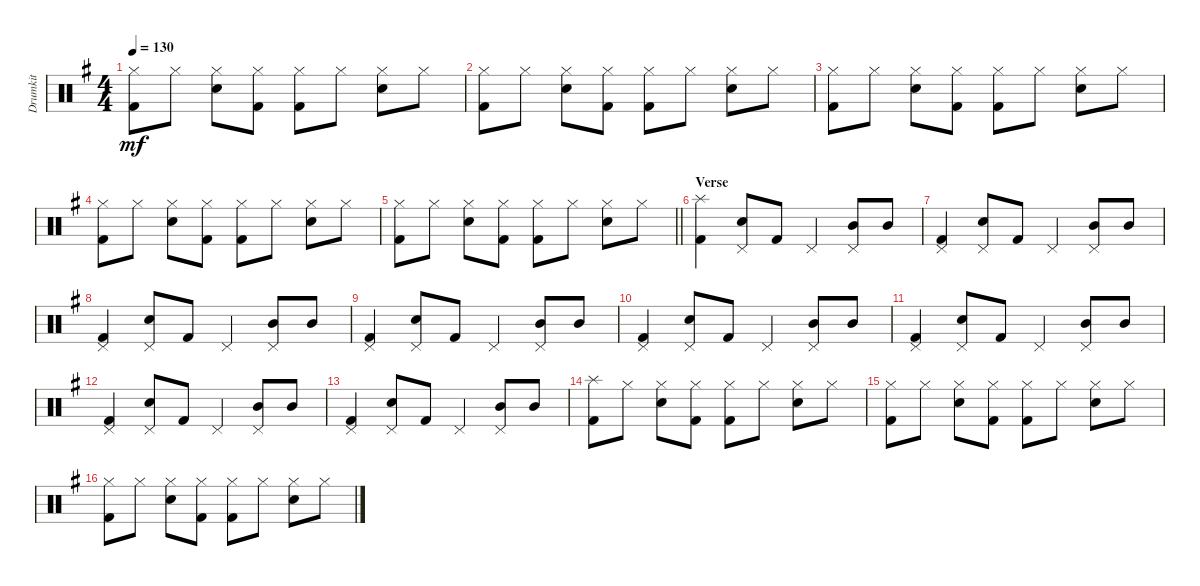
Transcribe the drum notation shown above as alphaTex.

\track ("Drumkit" "Drumkit") {instrument percussion}
\staff {score}
\articulation defaults
\ts (4 4)
\tempo 130
\clef neutral
\ks g
("Hi-Hat (closed)" "Kick (hit) 2").8{dy mf} "Hi-Hat (closed)".8 ("Hi-Hat (closed)" "Snare (hit) 2").8 ("Hi-Hat (closed)" "Kick (hit) 2").8 ("Hi-Hat (closed)" "Kick (hit) 2").8 "Hi-Hat (closed)".8 ("Hi-Hat (closed)" "Snare (hit) 2").8 "Hi-Hat (closed)".8 |
("Hi-Hat (closed)" "Kick (hit) 2").8 "Hi-Hat (closed)".8 ("Hi-Hat (closed)" "Snare (hit) 2").8 ("Hi-Hat (closed)" "Kick (hit) 2").8 ("Hi-Hat (closed)" "Kick (hit) 2").8 "Hi-Hat (closed)".8 ("Hi-Hat (closed)" "Snare (hit) 2").8 "Hi-Hat (closed)".8 |
("Hi-Hat (closed)" "Kick (hit) 2").8 "Hi-Hat (closed)".8 ("Hi-Hat (closed)" "Snare (hit) 2").8 ("Hi-Hat (closed)" "Kick (hit) 2").8 ("Hi-Hat (closed)" "Kick (hit) 2").8 "Hi-Hat (closed)".8 ("Hi-Hat (closed)" "Snare (hit) 2").8 "Hi-Hat (closed)".8 |
("Hi-Hat (closed)" "Kick (hit) 2").8 "Hi-Hat (closed)".8 ("Hi-Hat (closed)" "Snare (hit) 2").8 ("Hi-Hat (closed)" "Kick (hit) 2").8 ("Hi-Hat (closed)" "Kick (hit) 2").8 "Hi-Hat (closed)".8 ("Hi-Hat (closed)" "Snare (hit) 2").8 "Hi-Hat (closed)".8 |
\barLineRight lightlight
("Hi-Hat (closed)" "Kick (hit) 2").8 "Hi-Hat (closed)".8 ("Hi-Hat (closed)" "Snare (hit) 2").8 ("Hi-Hat (closed)" "Kick (hit) 2").8 ("Hi-Hat (closed)" "Kick (hit) 2").8 "Hi-Hat (closed)".8 ("Hi-Hat (closed)" "Snare (hit) 2").8 "Hi-Hat (closed)".8 |
\section ("" "Verse")
("Kick (hit) 2" "Splash (hit)").4 ("Snare (hit) 2" "Pedal Hi-Hat (hit)").8 "Kick (hit) 2".8 "Pedal Hi-Hat (hit)".4 ("Pedal Hi-Hat (hit)" "Mid Tom (hit)").8 "Mid Tom (hit)".8 |
("Pedal Hi-Hat (hit)" "Kick (hit) 2").4 ("Pedal Hi-Hat (hit)" "Snare (hit) 2").8 "Kick (hit) 2".8 "Pedal Hi-Hat (hit)".4 ("Pedal Hi-Hat (hit)" "Mid Tom (hit)").8 "Mid Tom (hit)".8 |
("Pedal Hi-Hat (hit)" "Kick (hit) 2").4 ("Pedal Hi-Hat (hit)" "Snare (hit) 2").8 "Kick (hit) 2".8 "Pedal Hi-Hat (hit)".4 ("Pedal Hi-Hat (hit)" "Mid Tom (hit)").8 "Mid Tom (hit)".8 |
("Pedal Hi-Hat (hit)" "Kick (hit) 2").4 ("Pedal Hi-Hat (hit)" "Snare (hit) 2").8 "Kick (hit) 2".8 "Pedal Hi-Hat (hit)".4 ("Pedal Hi-Hat (hit)" "Mid Tom (hit)").8 "Mid Tom (hit)".8 |
("Pedal Hi-Hat (hit)" "Kick (hit) 2").4 ("Pedal Hi-Hat (hit)" "Snare (hit) 2").8 "Kick (hit) 2".8 "Pedal Hi-Hat (hit)".4 ("Pedal Hi-Hat (hit)" "Mid Tom (hit)").8 "Mid Tom (hit)".8 |
("Pedal Hi-Hat (hit)" "Kick (hit) 2").4 ("Pedal Hi-Hat (hit)" "Snare (hit) 2").8 "Kick (hit) 2".8 "Pedal Hi-Hat (hit)".4 ("Pedal Hi-Hat (hit)" "Mid Tom (hit)").8 "Mid Tom (hit)".8 |
("Pedal Hi-Hat (hit)" "Kick (hit) 2").4 ("Pedal Hi-Hat (hit)" "Snare (hit) 2").8 "Kick (hit) 2".8 "Pedal Hi-Hat (hit)".4 ("Pedal Hi-Hat (hit)" "Mid Tom (hit)").8 "Mid Tom (hit)".8 |
("Pedal Hi-Hat (hit)" "Kick (hit) 2").4 ("Pedal Hi-Hat (hit)" "Snare (hit) 2").8 "Kick (hit) 2".8 "Pedal Hi-Hat (hit)".4 ("Pedal Hi-Hat (hit)" "Mid Tom (hit)").8 "Mid Tom (hit)".8 |
("Splash (hit)" "Kick (hit) 2").8 "Hi-Hat (closed)".8 ("Hi-Hat (closed)" "Snare (hit) 2").8 ("Hi-Hat (closed)" "Kick (hit) 2").8 ("Hi-Hat (closed)" "Kick (hit) 2").8 "Hi-Hat (closed)".8 ("Hi-Hat (closed)" "Snare (hit) 2").8 "Hi-Hat (closed)".8 |
("Hi-Hat (closed)" "Kick (hit) 2").8 "Hi-Hat (closed)".8 ("Hi-Hat (closed)" "Snare (hit) 2").8 ("Hi-Hat (closed)" "Kick (hit) 2").8 ("Hi-Hat (closed)" "Kick (hit) 2").8 "Hi-Hat (closed)".8 ("Hi-Hat (closed)" "Snare (hit) 2").8 "Hi-Hat (closed)".8 |
("Hi-Hat (closed)" "Kick (hit) 2").8 "Hi-Hat (closed)".8 ("Hi-Hat (closed)" "Snare (hit) 2").8 ("Hi-Hat (closed)" "Kick (hit) 2").8 ("Hi-Hat (closed)" "Kick (hit) 2").8 "Hi-Hat (closed)".8 ("Hi-Hat (closed)" "Snare (hit) 2").8 "Hi-Hat (closed)".8
